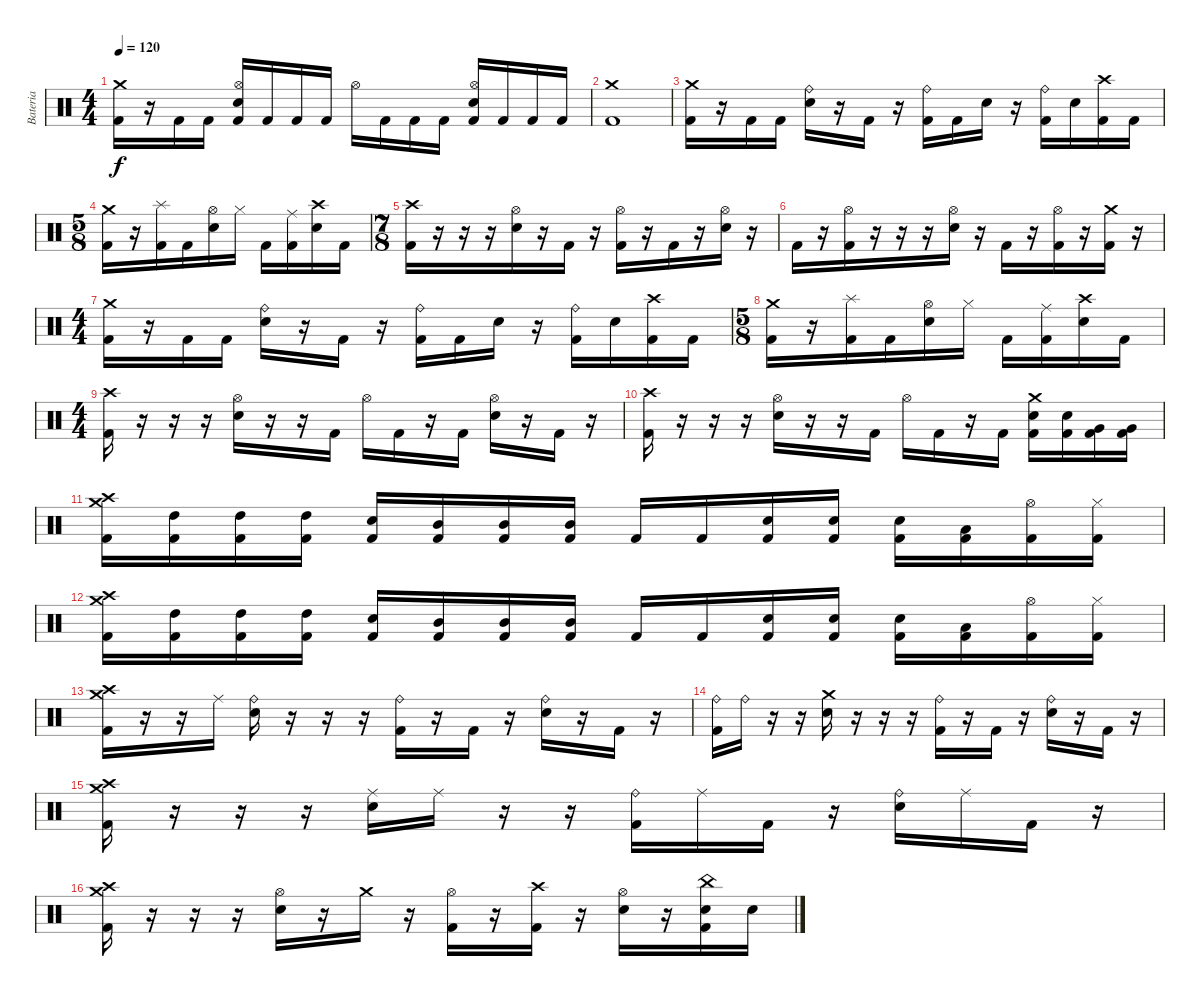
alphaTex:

\track ("Bateria" "Bateria") {instrument percussion}
\staff {score}
\articulation defaults
\ts (4 4)
\tempo 120
\clef neutral
\ks c
("Crash medium (hit)" "Kick (hit) 2").16{dy f} r.16 "Kick (hit) 2".16 "Kick (hit) 2".16 ("Hi-Hat (open)" "Electric Snare (hit)" "Kick (hit) 2").16 "Kick (hit) 2".16 "Kick (hit) 2".16 "Kick (hit) 2".16 "Hi-Hat (open)".16 "Kick (hit) 2".16 "Kick (hit) 2".16 "Kick (hit) 2".16 ("Hi-Hat (open)" "Electric Snare (hit)" "Kick (hit) 2").16 "Kick (hit) 2".16 "Kick (hit) 2".16 "Kick (hit) 2".16 |
("Crash medium (hit)" "Kick (hit) 2").1 |
("Crash medium (hit)" "Kick (hit) 2").16 r.16 "Kick (hit) 2".16 "Kick (hit) 2".16 ("Ride (bell)" "Electric Snare (hit)").16 r.16 "Kick (hit) 2".16 r.16 ("Ride (bell)" "Kick (hit) 2").16 "Kick (hit) 2".16 "Electric Snare (hit)".16 r.16 ("Ride (bell)" "Kick (hit) 2").16 "Electric Snare (hit)".16 ("Crash high (hit)" "Kick (hit) 2").16 "Kick (hit) 2".16 |
\ts (5 8)
("Crash medium (hit)" "Kick (hit) 2").16 r.16 ("Splash (hit)" "Kick (hit) 2").16 "Kick (hit) 2".16 ("Hi-Hat (open)" "Electric Snare (hit)").16 "Hi-Hat (closed)".16 "Kick (hit) 2".16 ("Ride (middle)" "Kick (hit) 2").16 ("Crash high (hit)" "Electric Snare (hit)").16 "Kick (hit) 2".16 |
\ts (7 8)
("Crash high (hit)" "Kick (hit) 2").16 r.16 r.16 r.16 ("Hi-Hat (open)" "Electric Snare (hit)").16 r.16 "Kick (hit) 2".16 r.16 ("Hi-Hat (open)" "Kick (hit) 2").16 r.16 "Kick (hit) 2".16 r.16 ("Hi-Hat (open)" "Electric Snare (hit)").16 r.16 |
"Kick (hit) 2".16 r.16 ("Hi-Hat (open)" "Kick (hit) 2").16 r.16 r.16 r.16 ("Hi-Hat (open)" "Electric Snare (hit)").16 r.16 "Kick (hit) 2".16 r.16 ("Hi-Hat (open)" "Kick (hit) 2").16 r.16 ("Crash medium (hit)" "Kick (hit) 2").16 r.16 |
\ts (4 4)
("Crash medium (hit)" "Kick (hit) 2").16 r.16 "Kick (hit) 2".16 "Kick (hit) 2".16 ("Ride (bell)" "Electric Snare (hit)").16 r.16 "Kick (hit) 2".16 r.16 ("Ride (bell)" "Kick (hit) 2").16 "Kick (hit) 2".16 "Electric Snare (hit)".16 r.16 ("Ride (bell)" "Kick (hit) 2").16 "Electric Snare (hit)".16 ("Crash high (hit)" "Kick (hit) 2").16 "Kick (hit) 2".16 |
\ts (5 8)
("Crash medium (hit)" "Kick (hit) 2").16 r.16 ("Splash (hit)" "Kick (hit) 2").16 "Kick (hit) 2".16 ("Hi-Hat (open)" "Electric Snare (hit)").16 "Hi-Hat (closed)".16 "Kick (hit) 2".16 ("Ride (middle)" "Kick (hit) 2").16 ("Crash high (hit)" "Electric Snare (hit)").16 "Kick (hit) 2".16 |
\ts (4 4)
("Crash high (hit)" "Kick (hit) 2").16 r.16 r.16 r.16 ("Hi-Hat (open)" "Electric Snare (hit)").16 r.16 r.16 "Kick (hit) 2".16 "Hi-Hat (open)".16 "Kick (hit) 2".16 r.16 "Kick (hit) 2".16 ("Hi-Hat (open)" "Electric Snare (hit)").16 r.16 "Kick (hit) 2".16 r.16 |
("Crash high (hit)" "Kick (hit) 2").16 r.16 r.16 r.16 ("Hi-Hat (open)" "Electric Snare (hit)").16 r.16 r.16 "Kick (hit) 2".16 "Hi-Hat (open)".16 "Kick (hit) 2".16 r.16 "Kick (hit) 2".16 ("Crash medium (hit)" "Electric Snare (hit)" "Kick (hit) 2").16 ("Electric Snare (hit)" "Kick (hit) 2").16 ("Very Low Tom (hit)" "Kick (hit) 2").16 ("Very Low Tom (hit)" "Kick (hit) 2").16 |
("Crash medium (hit)" "Crash high (hit)" "Kick (hit) 2").16 ("High Tom (hit)" "Kick (hit) 2").16 ("High Tom (hit)" "Kick (hit) 2").16 ("High Tom (hit)" "Kick (hit) 2").16 ("Electric Snare (hit)" "Kick (hit) 2").16 ("Mid Tom (hit)" "Kick (hit) 2").16 ("Mid Tom (hit)" "Kick (hit) 2").16 ("Mid Tom (hit)" "Kick (hit) 2").16 "Kick (hit) 2".16 "Kick (hit) 2".16 ("Electric Snare (hit)" "Kick (hit) 2").16 ("Electric Snare (hit)" "Kick (hit) 2").16 ("Electric Snare (hit)" "Kick (hit) 2").16 ("Low Tom (hit)" "Kick (hit) 2").16 ("Hi-Hat (open)" "Kick (hit) 2").16 ("Hi-Hat (closed)" "Kick (hit) 2").16 |
("Crash medium (hit)" "Crash high (hit)" "Kick (hit) 2").16 ("High Tom (hit)" "Kick (hit) 2").16 ("High Tom (hit)" "Kick (hit) 2").16 ("High Tom (hit)" "Kick (hit) 2").16 ("Electric Snare (hit)" "Kick (hit) 2").16 ("Mid Tom (hit)" "Kick (hit) 2").16 ("Mid Tom (hit)" "Kick (hit) 2").16 ("Mid Tom (hit)" "Kick (hit) 2").16 "Kick (hit) 2".16 "Kick (hit) 2".16 ("Electric Snare (hit)" "Kick (hit) 2").16 ("Electric Snare (hit)" "Kick (hit) 2").16 ("Electric Snare (hit)" "Kick (hit) 2").16 ("Low Tom (hit)" "Kick (hit) 2").16 ("Hi-Hat (open)" "Kick (hit) 2").16 ("Hi-Hat (closed)" "Kick (hit) 2").16 |
("Crash medium (hit)" "Crash high (hit)" "Kick (hit) 2").16 r.16 r.16 "Ride (middle)".16 ("Ride (bell)" "Electric Snare (hit)").16 r.16 r.16 r.16 ("Ride (bell)" "Kick (hit) 2").16 r.16 "Kick (hit) 2".16 r.16 ("Ride (bell)" "Electric Snare (hit)").16 r.16 "Kick (hit) 2".16 r.16 |
("Ride (bell)" "Kick (hit) 2").16 "Ride (bell)".16 r.16 r.16 ("Crash medium (hit)" "Electric Snare (hit)").16 r.16 r.16 r.16 ("Ride (bell)" "Kick (hit) 2").16 r.16 "Kick (hit) 2".16 r.16 ("Ride (bell)" "Electric Snare (hit)").16 r.16 "Kick (hit) 2".16 r.16 |
("Crash medium (hit)" "Crash high (hit)" "Kick (hit) 2").16 r.16 r.16 r.16 ("Ride (middle)" "Electric Snare (hit)").16 "Ride (middle)".16 r.16 r.16 ("Ride (bell)" "Kick (hit) 2").16 "Ride (middle)".16 "Kick (hit) 2".16 r.16 ("Ride (bell)" "Electric Snare (hit)").16 "Ride (middle)".16 "Kick (hit) 2".16 r.16 |
("Crash medium (hit)" "Crash high (hit)" "Kick (hit) 2").16 r.16 r.16 r.16 ("Hi-Hat (open)" "Electric Snare (hit)").16 r.16 "Crash medium (hit)".16 r.16 ("Hi-Hat (open)" "Kick (hit) 2").16 r.16 ("Crash high (hit)" "Kick (hit) 2").16 r.16 ("Hi-Hat (open)" "Electric Snare (hit)").16 r.16 ("China (hit)" "Electric Snare (hit)" "Kick (hit) 2").16 "Electric Snare (hit)".16
